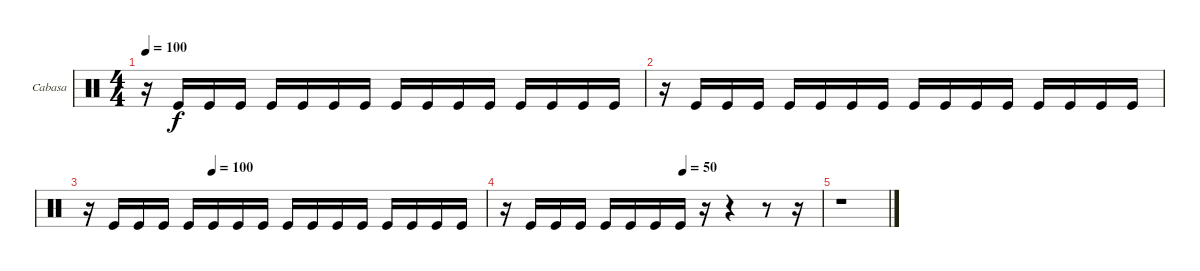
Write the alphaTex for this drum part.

\bracketExtendMode groupsimilarinstruments
\firstSystemTrackNameOrientation horizontal
\otherSystemsTrackNameOrientation horizontal
\track ("Cabasa" "Cabasa") {instrument percussion}
\staff {score}
\articulation defaults
\ts (4 4)
\tempo 100
\clef neutral
\ks c
r.16{dy f} "Kick (hit)".16 "Kick (hit)".16 "Kick (hit)".16 "Kick (hit)".16 "Kick (hit)".16 "Kick (hit)".16 "Kick (hit)".16 "Kick (hit)".16 "Kick (hit)".16 "Kick (hit)".16 "Kick (hit)".16 "Kick (hit)".16 "Kick (hit)".16 "Kick (hit)".16 "Kick (hit)".16 |
r.16 "Kick (hit)".16 "Kick (hit)".16 "Kick (hit)".16 "Kick (hit)".16 "Kick (hit)".16 "Kick (hit)".16 "Kick (hit)".16 "Kick (hit)".16 "Kick (hit)".16 "Kick (hit)".16 "Kick (hit)".16 "Kick (hit)".16 "Kick (hit)".16 "Kick (hit)".16 "Kick (hit)".16 |
\tempo (100 0.3125)
r.16 "Kick (hit)".16 "Kick (hit)".16 "Kick (hit)".16 "Kick (hit)".16 "Kick (hit)".16 "Kick (hit)".16 "Kick (hit)".16 "Kick (hit)".16 "Kick (hit)".16 "Kick (hit)".16 "Kick (hit)".16 "Kick (hit)".16 "Kick (hit)".16 "Kick (hit)".16 "Kick (hit)".16 |
\tempo (50 0.5625)
r.16 "Kick (hit)".16 "Kick (hit)".16 "Kick (hit)".16 "Kick (hit)".16 "Kick (hit)".16 "Kick (hit)".16 "Kick (hit)".16 r.16 r.4 r.8 r.16 |
r.1
